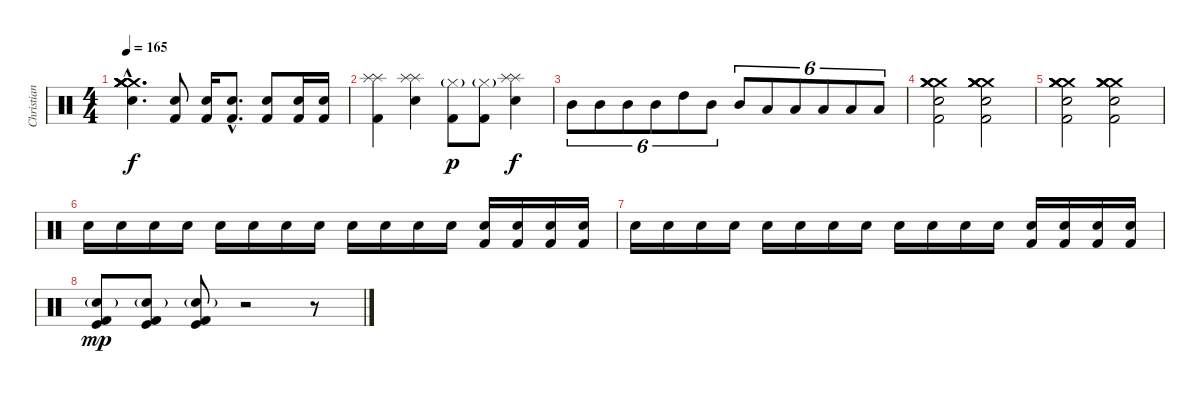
\track ("Christian Batteria" "Christian ") {instrument percussion}
\staff {score}
\articulation defaults
\ts (4 4)
\tempo 165
\clef neutral
\ks c
("Crash medium (hit)"{hac} "Crash medium (hit)"{hac} "Crash medium (hit)"{hac} "Crash medium (hit)"{hac} "Crash medium (hit)"{hac} "Snare (hit) 2"{hac}).4{d dy f} ("Kick (hit) 2" "Snare (hit) 2").8 ("Kick (hit) 2" "Snare (hit) 2").16 ("Kick (hit) 2"{hac} "Snare (hit) 2"{hac}).8{d} ("Kick (hit) 2" "Snare (hit) 2").8 ("Kick (hit) 2" "Snare (hit) 2").16 ("Kick (hit) 2" "Snare (hit) 2").16 |
("Splash (hit)" "Splash (hit)" "Kick (hit) 2").4 ("Splash (hit)" "Splash (hit)" "Snare (hit) 2").4 ("Hi-Hat (closed)"{g} "Kick (hit) 2").8{dy p} ("Hi-Hat (closed)"{g} "Kick (hit) 2").8 ("Splash (hit)" "Splash (hit)" "Snare (hit) 2").4{dy f} |
"Mid Tom (hit)".8{tu (6 4)} "Mid Tom (hit)".8{tu (6 4)} "Mid Tom (hit)".8{tu (6 4)} "Mid Tom (hit)".8{tu (6 4)} "High Tom (hit)".8{tu (6 4)} "Mid Tom (hit)".8{tu (6 4)} "Mid Tom (hit)".8{tu (6 4)} "Low Tom (hit)".8{tu (6 4)} "Low Tom (hit)".8{tu (6 4)} "Low Tom (hit)".8{tu (6 4)} "Low Tom (hit)".8{tu (6 4)} "Low Tom (hit)".8{tu (6 4)} |
("Crash medium (hit)" "Crash medium (hit)" "Crash medium (hit)" "Crash medium (hit)" "Snare (hit) 2" "Kick (hit) 2").2 ("Crash medium (hit)" "Crash medium (hit)" "Crash medium (hit)" "Crash medium (hit)" "Snare (hit) 2" "Kick (hit) 2").2 |
("Crash medium (hit)" "Crash medium (hit)" "Crash medium (hit)" "Crash medium (hit)" "Snare (hit) 2" "Kick (hit) 2").2 ("Crash medium (hit)" "Crash medium (hit)" "Crash medium (hit)" "Crash medium (hit)" "Snare (hit) 2" "Kick (hit) 2").2 |
"Snare (hit) 2".16 "Snare (hit) 2".16 "Snare (hit) 2".16 "Electric Snare (hit)".16 "Electric Snare (hit)".16 "Snare (hit) 2".16 "Snare (hit) 2".16 "Snare (hit) 2".16 "Electric Snare (hit)".16 "Electric Snare (hit)".16 "Snare (hit) 2".16 "Snare (hit) 2".16 ("Snare (hit) 2" "Kick (hit) 2").16 ("Snare (hit) 2" "Kick (hit) 2").16 ("Kick (hit) 2" "Snare (hit) 2").16 ("Kick (hit) 2" "Snare (hit) 2").16 |
"Snare (hit) 2".16 "Snare (hit) 2".16 "Snare (hit) 2".16 "Electric Snare (hit)".16 "Electric Snare (hit)".16 "Snare (hit) 2".16 "Snare (hit) 2".16 "Snare (hit) 2".16 "Electric Snare (hit)".16 "Electric Snare (hit)".16 "Snare (hit) 2".16 "Snare (hit) 2".16 ("Snare (hit) 2" "Kick (hit) 2").16 ("Snare (hit) 2" "Kick (hit) 2").16 ("Kick (hit) 2" "Snare (hit) 2").16 ("Kick (hit) 2" "Snare (hit) 2").16 |
("Snare (hit) 2"{g} "Kick (hit)" "Kick (hit) 2").8{dy mp} ("Snare (hit) 2"{g} "Kick (hit)" "Kick (hit) 2").8 ("Snare (hit) 2"{g} "Kick (hit)" "Kick (hit) 2").8 r.2 r.8
